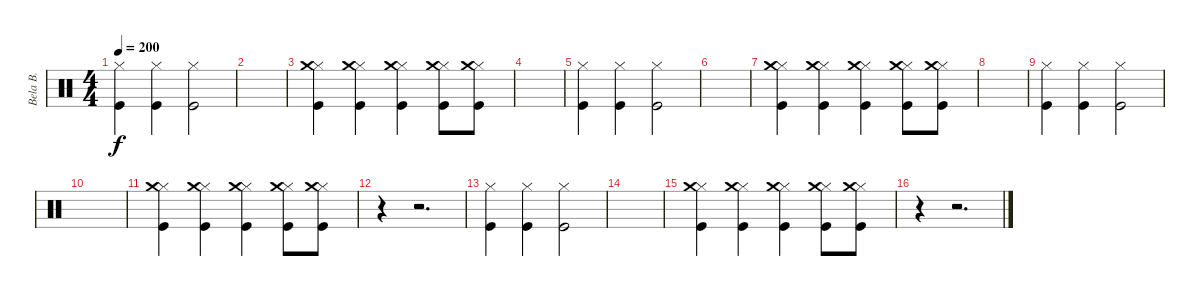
\track ("Bela B." "Bela B.") {instrument percussion}
\staff {score}
\articulation defaults
\ts (4 4)
\tempo 200
\clef neutral
\ks c
("Hi-Hat (closed)" "Kick (hit)").4{dy f} ("Hi-Hat (closed)" "Kick (hit)").4 ("Hi-Hat (closed)" "Kick (hit)").2 |
|
("Hi-Hat (closed)" "Crash medium (hit)" "Kick (hit)").4 ("Hi-Hat (closed)" "Crash medium (hit)" "Kick (hit)").4 ("Hi-Hat (closed)" "Crash medium (hit)" "Kick (hit)").4 ("Hi-Hat (closed)" "Crash medium (hit)" "Kick (hit)").8 ("Hi-Hat (closed)" "Crash medium (hit)" "Kick (hit)").8 |
|
("Hi-Hat (closed)" "Kick (hit)").4 ("Hi-Hat (closed)" "Kick (hit)").4 ("Hi-Hat (closed)" "Kick (hit)").2 |
|
("Hi-Hat (closed)" "Crash medium (hit)" "Kick (hit)").4 ("Hi-Hat (closed)" "Crash medium (hit)" "Kick (hit)").4 ("Hi-Hat (closed)" "Crash medium (hit)" "Kick (hit)").4 ("Hi-Hat (closed)" "Crash medium (hit)" "Kick (hit)").8 ("Hi-Hat (closed)" "Crash medium (hit)" "Kick (hit)").8 |
|
("Hi-Hat (closed)" "Kick (hit)").4 ("Hi-Hat (closed)" "Kick (hit)").4 ("Hi-Hat (closed)" "Kick (hit)").2 |
|
("Hi-Hat (closed)" "Crash medium (hit)" "Kick (hit)").4 ("Hi-Hat (closed)" "Crash medium (hit)" "Kick (hit)").4 ("Hi-Hat (closed)" "Crash medium (hit)" "Kick (hit)").4 ("Hi-Hat (closed)" "Crash medium (hit)" "Kick (hit)").8 ("Hi-Hat (closed)" "Crash medium (hit)" "Kick (hit)").8 |
r.4 r.2{d} |
("Hi-Hat (closed)" "Kick (hit)").4 ("Hi-Hat (closed)" "Kick (hit)").4 ("Hi-Hat (closed)" "Kick (hit)").2 |
|
("Hi-Hat (closed)" "Crash medium (hit)" "Kick (hit)").4 ("Hi-Hat (closed)" "Crash medium (hit)" "Kick (hit)").4 ("Hi-Hat (closed)" "Crash medium (hit)" "Kick (hit)").4 ("Hi-Hat (closed)" "Crash medium (hit)" "Kick (hit)").8 ("Hi-Hat (closed)" "Crash medium (hit)" "Kick (hit)").8 |
r.4 r.2{d}
